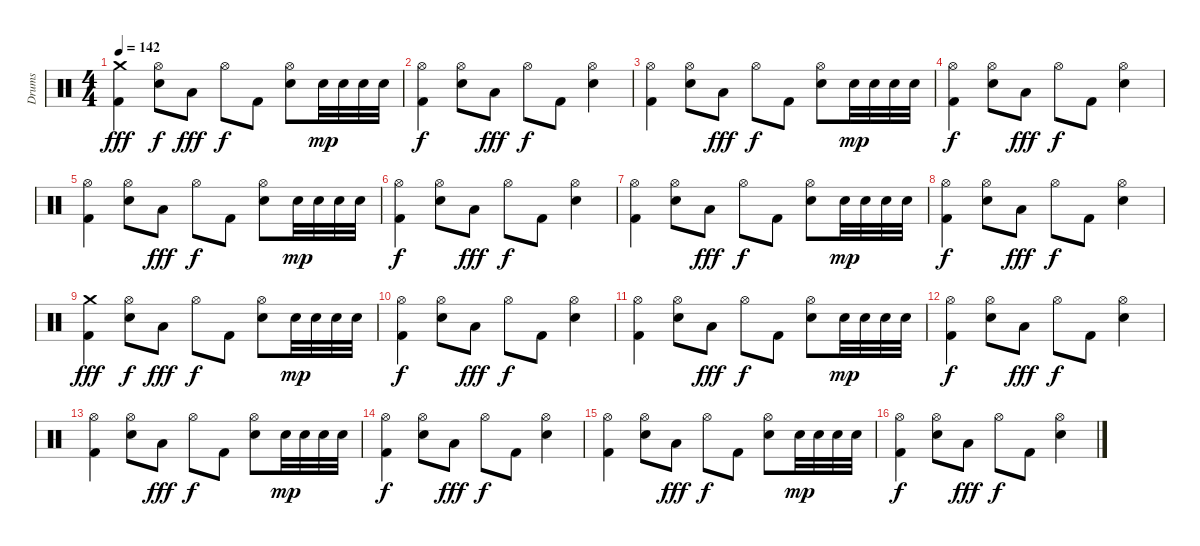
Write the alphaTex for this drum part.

\track ("Drums" "Drums") {instrument percussion}
\staff {score}
\articulation defaults
\ts (4 4)
\tempo 142
\clef neutral
\ks c
("Crash medium (hit)" "Kick (hit) 2").4{dy fff volume 11} ("Hi-Hat (open)" "Snare (hit) 2").8{dy f} "Low Tom (hit)".8{dy fff} "Hi-Hat (open)".8{dy f} "Kick (hit) 2".8 ("Hi-Hat (open)" "Snare (hit) 2").8 "Snare (hit) 2".32{dy mp} "Snare (hit) 2".32 "Snare (hit) 2".32 "Snare (hit) 2".32 |
("Hi-Hat (open)" "Kick (hit) 2").4{dy f volume 11} ("Hi-Hat (open)" "Snare (hit) 2").8 "Low Tom (hit)".8{dy fff} "Hi-Hat (open)".8{dy f} "Kick (hit) 2".8 ("Hi-Hat (open)" "Snare (hit) 2").4 |
("Hi-Hat (open)" "Kick (hit) 2").4{volume 11} ("Hi-Hat (open)" "Snare (hit) 2").8 "Low Tom (hit)".8{dy fff} "Hi-Hat (open)".8{dy f} "Kick (hit) 2".8 ("Hi-Hat (open)" "Snare (hit) 2").8 "Snare (hit) 2".32{dy mp} "Snare (hit) 2".32 "Snare (hit) 2".32 "Snare (hit) 2".32 |
("Hi-Hat (open)" "Kick (hit) 2").4{dy f volume 11} ("Hi-Hat (open)" "Snare (hit) 2").8 "Low Tom (hit)".8{dy fff} "Hi-Hat (open)".8{dy f} "Kick (hit) 2".8 ("Hi-Hat (open)" "Snare (hit) 2").4 |
("Hi-Hat (open)" "Kick (hit) 2").4{volume 11} ("Hi-Hat (open)" "Snare (hit) 2").8 "Low Tom (hit)".8{dy fff} "Hi-Hat (open)".8{dy f} "Kick (hit) 2".8 ("Hi-Hat (open)" "Snare (hit) 2").8 "Snare (hit) 2".32{dy mp} "Snare (hit) 2".32 "Snare (hit) 2".32 "Snare (hit) 2".32 |
("Hi-Hat (open)" "Kick (hit) 2").4{dy f volume 11} ("Hi-Hat (open)" "Snare (hit) 2").8 "Low Tom (hit)".8{dy fff} "Hi-Hat (open)".8{dy f} "Kick (hit) 2".8 ("Hi-Hat (open)" "Snare (hit) 2").4 |
("Hi-Hat (open)" "Kick (hit) 2").4{volume 11} ("Hi-Hat (open)" "Snare (hit) 2").8 "Low Tom (hit)".8{dy fff} "Hi-Hat (open)".8{dy f} "Kick (hit) 2".8 ("Hi-Hat (open)" "Snare (hit) 2").8 "Snare (hit) 2".32{dy mp} "Snare (hit) 2".32 "Snare (hit) 2".32 "Snare (hit) 2".32 |
("Hi-Hat (open)" "Kick (hit) 2").4{dy f volume 11} ("Hi-Hat (open)" "Snare (hit) 2").8 "Low Tom (hit)".8{dy fff} "Hi-Hat (open)".8{dy f} "Kick (hit) 2".8 ("Hi-Hat (open)" "Snare (hit) 2").4 |
("Crash medium (hit)" "Kick (hit) 2").4{dy fff volume 11} ("Hi-Hat (open)" "Snare (hit) 2").8{dy f} "Low Tom (hit)".8{dy fff} "Hi-Hat (open)".8{dy f} "Kick (hit) 2".8 ("Hi-Hat (open)" "Snare (hit) 2").8 "Snare (hit) 2".32{dy mp} "Snare (hit) 2".32 "Snare (hit) 2".32 "Snare (hit) 2".32 |
("Hi-Hat (open)" "Kick (hit) 2").4{dy f volume 11} ("Hi-Hat (open)" "Snare (hit) 2").8 "Low Tom (hit)".8{dy fff} "Hi-Hat (open)".8{dy f} "Kick (hit) 2".8 ("Hi-Hat (open)" "Snare (hit) 2").4 |
("Hi-Hat (open)" "Kick (hit) 2").4{volume 11} ("Hi-Hat (open)" "Snare (hit) 2").8 "Low Tom (hit)".8{dy fff} "Hi-Hat (open)".8{dy f} "Kick (hit) 2".8 ("Hi-Hat (open)" "Snare (hit) 2").8 "Snare (hit) 2".32{dy mp} "Snare (hit) 2".32 "Snare (hit) 2".32 "Snare (hit) 2".32 |
("Hi-Hat (open)" "Kick (hit) 2").4{dy f volume 11} ("Hi-Hat (open)" "Snare (hit) 2").8 "Low Tom (hit)".8{dy fff} "Hi-Hat (open)".8{dy f} "Kick (hit) 2".8 ("Hi-Hat (open)" "Snare (hit) 2").4 |
("Hi-Hat (open)" "Kick (hit) 2").4{volume 11} ("Hi-Hat (open)" "Snare (hit) 2").8 "Low Tom (hit)".8{dy fff} "Hi-Hat (open)".8{dy f} "Kick (hit) 2".8 ("Hi-Hat (open)" "Snare (hit) 2").8 "Snare (hit) 2".32{dy mp} "Snare (hit) 2".32 "Snare (hit) 2".32 "Snare (hit) 2".32 |
("Hi-Hat (open)" "Kick (hit) 2").4{dy f volume 11} ("Hi-Hat (open)" "Snare (hit) 2").8 "Low Tom (hit)".8{dy fff} "Hi-Hat (open)".8{dy f} "Kick (hit) 2".8 ("Hi-Hat (open)" "Snare (hit) 2").4 |
("Hi-Hat (open)" "Kick (hit) 2").4{volume 11} ("Hi-Hat (open)" "Snare (hit) 2").8 "Low Tom (hit)".8{dy fff} "Hi-Hat (open)".8{dy f} "Kick (hit) 2".8 ("Hi-Hat (open)" "Snare (hit) 2").8 "Snare (hit) 2".32{dy mp} "Snare (hit) 2".32 "Snare (hit) 2".32 "Snare (hit) 2".32 |
("Hi-Hat (open)" "Kick (hit) 2").4{dy f volume 11} ("Hi-Hat (open)" "Snare (hit) 2").8 "Low Tom (hit)".8{dy fff} "Hi-Hat (open)".8{dy f} "Kick (hit) 2".8 ("Hi-Hat (open)" "Snare (hit) 2").4
